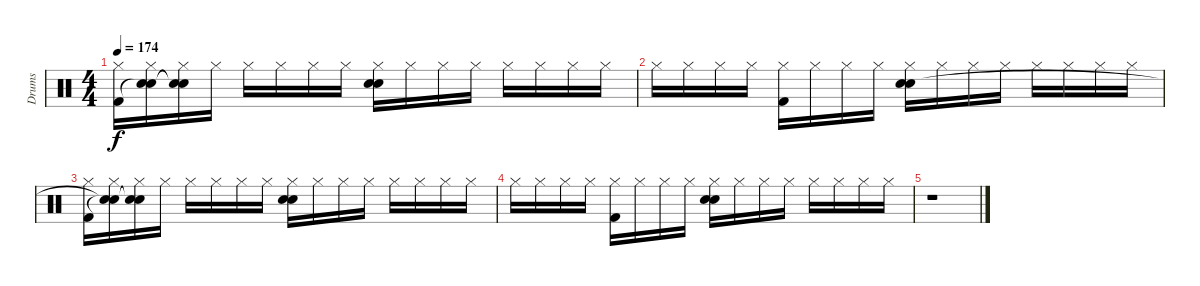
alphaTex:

\track ("Drums" "Drums") {instrument percussion}
\staff {score}
\articulation defaults
\ts (4 4)
\tempo 174
\clef neutral
\ks c
("Hi-Hat (closed)" "Kick (hit) 2").16{dy f} ("Hi-Hat (closed)" "Snare (hit)"{t} "Snare (hit)"{t}).16 ("Hi-Hat (closed)" "Snare (hit)"{t} "Snare (hit)"{t}).16 "Hi-Hat (closed)".16 "Hi-Hat (closed)".16 "Hi-Hat (closed)".16 "Hi-Hat (closed)".16 "Hi-Hat (closed)".16 ("Hi-Hat (closed)" "Electric Snare (hit)" "Snare (hit) 2").16 "Hi-Hat (closed)".16 "Hi-Hat (closed)".16 "Hi-Hat (closed)".16 "Hi-Hat (closed)".16 "Hi-Hat (closed)".16 "Hi-Hat (closed)".16 "Hi-Hat (closed)".16 |
"Hi-Hat (closed)".16 "Hi-Hat (closed)".16 "Hi-Hat (closed)".16 "Hi-Hat (closed)".16 ("Hi-Hat (closed)" "Kick (hit) 2").16 "Hi-Hat (closed)".16 "Hi-Hat (closed)".16 "Hi-Hat (closed)".16 ("Hi-Hat (closed)" "Electric Snare (hit)" "Snare (hit) 2").16 "Hi-Hat (closed)".16 "Hi-Hat (closed)".16 "Hi-Hat (closed)".16 "Hi-Hat (closed)".16 "Hi-Hat (closed)".16 "Hi-Hat (closed)".16 "Hi-Hat (closed)".16 |
("Hi-Hat (closed)" "Kick (hit) 2").16 ("Hi-Hat (closed)" "Snare (hit)"{t} "Snare (hit)"{t}).16 ("Hi-Hat (closed)" "Snare (hit)"{t} "Snare (hit)"{t}).16 "Hi-Hat (closed)".16 "Hi-Hat (closed)".16 "Hi-Hat (closed)".16 "Hi-Hat (closed)".16 "Hi-Hat (closed)".16 ("Hi-Hat (closed)" "Electric Snare (hit)" "Snare (hit) 2").16 "Hi-Hat (closed)".16 "Hi-Hat (closed)".16 "Hi-Hat (closed)".16 "Hi-Hat (closed)".16 "Hi-Hat (closed)".16 "Hi-Hat (closed)".16 "Hi-Hat (closed)".16 |
"Hi-Hat (closed)".16 "Hi-Hat (closed)".16 "Hi-Hat (closed)".16 "Hi-Hat (closed)".16 ("Hi-Hat (closed)" "Kick (hit) 2").16 "Hi-Hat (closed)".16 "Hi-Hat (closed)".16 "Hi-Hat (closed)".16 ("Hi-Hat (closed)" "Electric Snare (hit)" "Snare (hit) 2").16 "Hi-Hat (closed)".16 "Hi-Hat (closed)".16 "Hi-Hat (closed)".16 "Hi-Hat (closed)".16 "Hi-Hat (closed)".16 "Hi-Hat (closed)".16 "Hi-Hat (closed)".16 |
r.1
